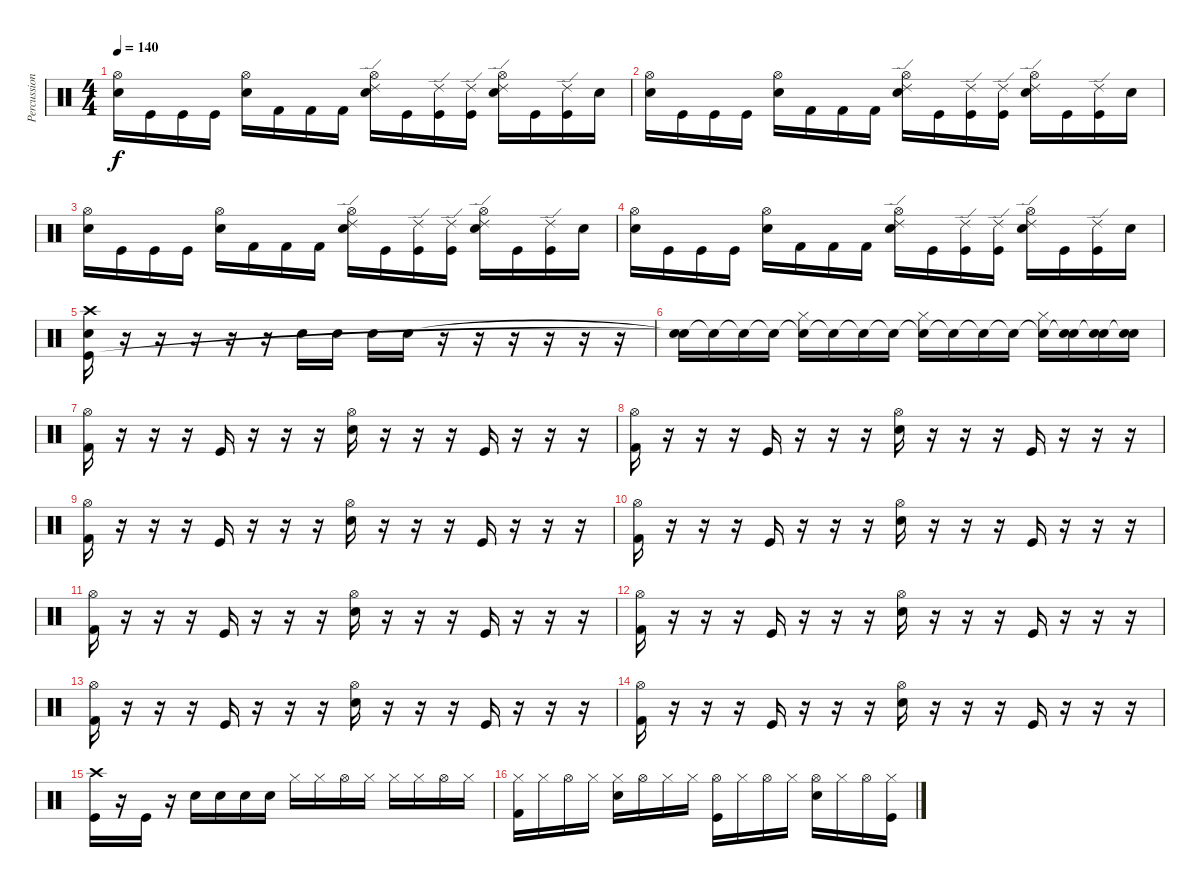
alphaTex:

\track ("Percussion" "Percussion") {instrument percussion}
\staff {score}
\articulation defaults
\ts (4 4)
\tempo 140
\clef neutral
\ks c
("Hi-Hat (open)" "Snare (hit) 2").16{dy f} "Kick (hit)".16 "Kick (hit)".16 "Kick (hit)".16 ("Hi-Hat (open)" "Snare (hit) 2").16 "Kick (hit) 2".16 "Kick (hit) 2".16 "Kick (hit) 2".16 ("Hi-Hat (open)" "Snare (hit) 2" "Ride (edge) 2").16 "Kick (hit)".16 ("Kick (hit)" "Ride (edge) 2").16 ("Kick (hit)" "Ride (edge) 2").16 ("Hi-Hat (open)" "Snare (hit) 2" "Ride (edge) 2").16 "Kick (hit)".16 ("Kick (hit)" "Ride (edge) 2").16 "Snare (hit) 2".16 |
("Hi-Hat (open)" "Snare (hit) 2").16 "Kick (hit)".16 "Kick (hit)".16 "Kick (hit)".16 ("Hi-Hat (open)" "Snare (hit) 2").16 "Kick (hit) 2".16 "Kick (hit) 2".16 "Kick (hit) 2".16 ("Hi-Hat (open)" "Snare (hit) 2" "Ride (edge) 2").16 "Kick (hit)".16 ("Kick (hit)" "Ride (edge) 2").16 ("Kick (hit)" "Ride (edge) 2").16 ("Hi-Hat (open)" "Snare (hit) 2" "Ride (edge) 2").16 "Kick (hit)".16 ("Kick (hit)" "Ride (edge) 2").16 "Snare (hit) 2".16 |
("Hi-Hat (open)" "Snare (hit) 2").16 "Kick (hit)".16 "Kick (hit)".16 "Kick (hit)".16 ("Hi-Hat (open)" "Snare (hit) 2").16 "Kick (hit) 2".16 "Kick (hit) 2".16 "Kick (hit) 2".16 ("Hi-Hat (open)" "Snare (hit) 2" "Ride (edge) 2").16 "Kick (hit)".16 ("Kick (hit)" "Ride (edge) 2").16 ("Kick (hit)" "Ride (edge) 2").16 ("Hi-Hat (open)" "Snare (hit) 2" "Ride (edge) 2").16 "Kick (hit)".16 ("Kick (hit)" "Ride (edge) 2").16 "Snare (hit) 2".16 |
("Hi-Hat (open)" "Snare (hit) 2").16 "Kick (hit)".16 "Kick (hit)".16 "Kick (hit)".16 ("Hi-Hat (open)" "Snare (hit) 2").16 "Kick (hit) 2".16 "Kick (hit) 2".16 "Kick (hit) 2".16 ("Hi-Hat (open)" "Snare (hit) 2" "Ride (edge) 2").16 "Kick (hit)".16 ("Kick (hit)" "Ride (edge) 2").16 ("Kick (hit)" "Ride (edge) 2").16 ("Hi-Hat (open)" "Snare (hit) 2" "Ride (edge) 2").16 "Kick (hit)".16 ("Kick (hit)" "Ride (edge) 2").16 "Snare (hit) 2".16 |
("Crash high (hit)" "Kick (hit)" "Snare (hit) 2").16 r.16 r.16 r.16 r.16 r.16 "Snare (hit) 2".16 "Snare (hit) 2".16 "Snare (hit) 2".16 "Snare (hit) 2".16 r.16 r.16 r.16 r.16 r.16 r.16 |
("Snare (hit)"{t} "Snare (hit)"{t}).16 "Snare (hit)"{t}.16 "Snare (hit)"{t}.16 "Snare (hit)"{t}.16 ("Snare (hit)"{t} "Hi-Hat (closed)").16 "Snare (hit)"{t}.16 "Snare (hit)"{t}.16 "Snare (hit)"{t}.16 ("Snare (hit)"{t} "Hi-Hat (closed)").16 "Snare (hit)"{t}.16 "Snare (hit)"{t}.16 "Snare (hit)"{t}.16 ("Snare (hit)"{t} "Hi-Hat (closed)").16 ("Snare (hit)"{t} "Snare (hit) 2").16 ("Snare (hit)"{t} "Snare (hit) 2").16 ("Snare (hit)"{t} "Snare (hit) 2").16 |
("Hi-Hat (open)" "Kick (hit) 2").16 r.16 r.16 r.16 "Kick (hit)".16 r.16 r.16 r.16 ("Snare (hit) 2" "Hi-Hat (open)").16 r.16 r.16 r.16 "Kick (hit)".16 r.16 r.16 r.16 |
("Hi-Hat (open)" "Kick (hit) 2").16 r.16 r.16 r.16 "Kick (hit)".16 r.16 r.16 r.16 ("Snare (hit) 2" "Hi-Hat (open)").16 r.16 r.16 r.16 "Kick (hit)".16 r.16 r.16 r.16 |
("Hi-Hat (open)" "Kick (hit) 2").16 r.16 r.16 r.16 "Kick (hit)".16 r.16 r.16 r.16 ("Snare (hit) 2" "Hi-Hat (open)").16 r.16 r.16 r.16 "Kick (hit)".16 r.16 r.16 r.16 |
("Hi-Hat (open)" "Kick (hit) 2").16 r.16 r.16 r.16 "Kick (hit)".16 r.16 r.16 r.16 ("Snare (hit) 2" "Hi-Hat (open)").16 r.16 r.16 r.16 "Kick (hit)".16 r.16 r.16 r.16 |
("Hi-Hat (open)" "Kick (hit) 2").16 r.16 r.16 r.16 "Kick (hit)".16 r.16 r.16 r.16 ("Snare (hit) 2" "Hi-Hat (open)").16 r.16 r.16 r.16 "Kick (hit)".16 r.16 r.16 r.16 |
("Hi-Hat (open)" "Kick (hit) 2").16 r.16 r.16 r.16 "Kick (hit)".16 r.16 r.16 r.16 ("Snare (hit) 2" "Hi-Hat (open)").16 r.16 r.16 r.16 "Kick (hit)".16 r.16 r.16 r.16 |
("Hi-Hat (open)" "Kick (hit) 2").16 r.16 r.16 r.16 "Kick (hit)".16 r.16 r.16 r.16 ("Snare (hit) 2" "Hi-Hat (open)").16 r.16 r.16 r.16 "Kick (hit)".16 r.16 r.16 r.16 |
("Hi-Hat (open)" "Kick (hit) 2").16 r.16 r.16 r.16 "Kick (hit)".16 r.16 r.16 r.16 ("Snare (hit) 2" "Hi-Hat (open)").16 r.16 r.16 r.16 "Kick (hit)".16 r.16 r.16 r.16 |
("Crash high (hit)" "Kick (hit)").16 r.16 "Kick (hit)".16 r.16 "Snare (hit) 2".16 "Snare (hit) 2".16 "Snare (hit) 2".16 "Snare (hit) 2".16 "Hi-Hat (closed)".16 "Hi-Hat (closed)".16 "Hi-Hat (open)".16 "Hi-Hat (closed)".16 "Hi-Hat (closed)".16 "Hi-Hat (closed)".16 "Hi-Hat (open)".16 "Hi-Hat (closed)".16 |
("Hi-Hat (closed)" "Kick (hit) 2").16 "Hi-Hat (closed)".16 "Hi-Hat (open)".16 "Hi-Hat (closed)".16 ("Hi-Hat (closed)" "Snare (hit) 2").16 "Hi-Hat (open)".16 "Hi-Hat (closed)".16 "Hi-Hat (closed)".16 ("Hi-Hat (open)" "Kick (hit)").16 "Hi-Hat (closed)".16 "Hi-Hat (open)".16 "Hi-Hat (closed)".16 ("Hi-Hat (open)" "Snare (hit) 2").16 "Hi-Hat (closed)".16 "Hi-Hat (open)".16 ("Hi-Hat (closed)" "Kick (hit)").16
